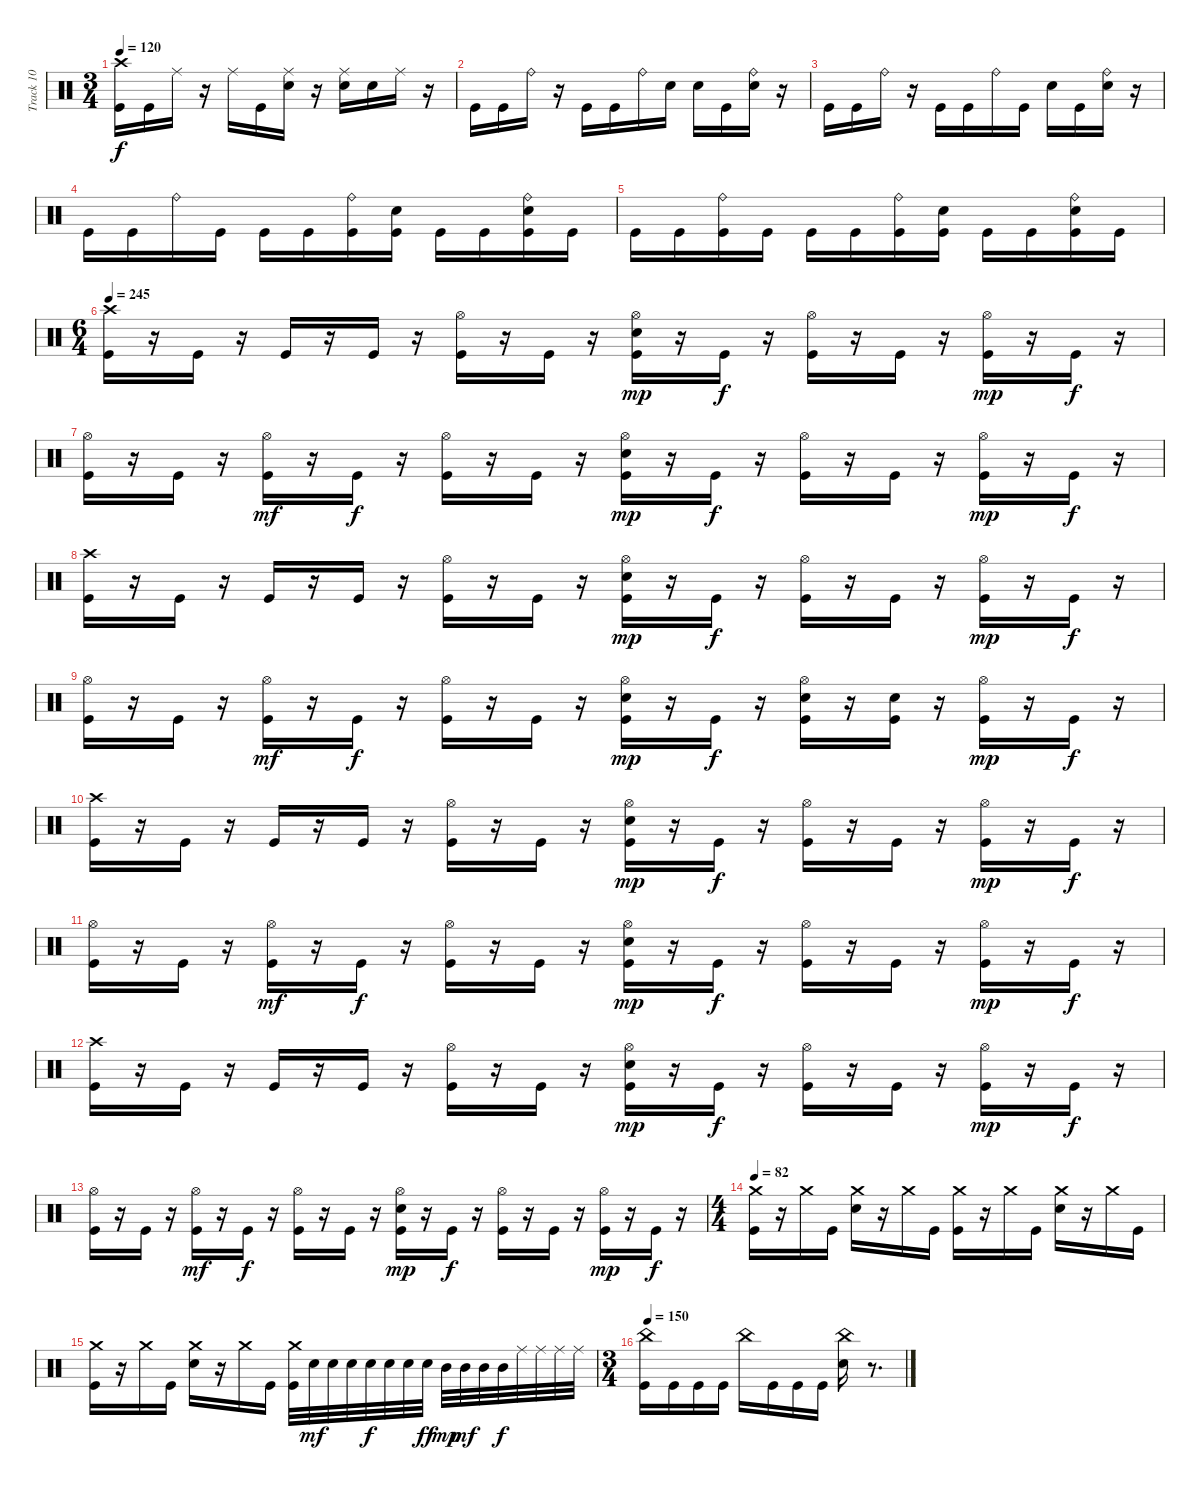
\track ("Track 10" "Track 10") {instrument percussion}
\staff {score}
\articulation defaults
\ts (3 4)
\tempo 120
\clef neutral
\ks c
("Kick (hit)" "Crash high (hit)").16{dy f} "Kick (hit)".16 "Ride (middle)".16 r.16 "Ride (middle)".16 "Kick (hit)".16 ("Snare (hit) 2" "Ride (middle)").16 r.16 ("Snare (hit) 2" "Ride (middle)").16 "Snare (hit) 2".16 "Ride (middle)".16 r.16 |
"Kick (hit)".16 "Kick (hit)".16 "Ride (bell)".16 r.16 "Kick (hit)".16 "Kick (hit)".16 "Ride (bell)".16 "Snare (hit) 2".16 "Snare (hit) 2".16 "Kick (hit)".16 ("Snare (hit) 2" "Ride (bell)").16 r.16 |
"Kick (hit)".16 "Kick (hit)".16 "Ride (bell)".16 r.16 "Kick (hit)".16 "Kick (hit)".16 "Ride (bell)".16 "Kick (hit)".16 "Snare (hit) 2".16 "Kick (hit)".16 ("Snare (hit) 2" "Ride (bell)").16 r.16 |
"Kick (hit)".16 "Kick (hit)".16 "Ride (bell)".16 "Kick (hit)".16 "Kick (hit)".16 "Kick (hit)".16 ("Kick (hit)" "Ride (bell)").16 ("Kick (hit)" "Snare (hit) 2").16 "Kick (hit)".16 "Kick (hit)".16 ("Kick (hit)" "Snare (hit) 2" "Ride (bell)").16 "Kick (hit)".16 |
"Kick (hit)".16 "Kick (hit)".16 ("Kick (hit)" "Ride (bell)").16 "Kick (hit)".16 "Kick (hit)".16 "Kick (hit)".16 ("Kick (hit)" "Ride (bell)").16 ("Kick (hit)" "Snare (hit) 2").16 "Kick (hit)".16 "Kick (hit)".16 ("Kick (hit)" "Snare (hit) 2" "Ride (bell)").16 "Kick (hit)".16 |
\ts (6 4)
\tempo 245
("Kick (hit)" "Crash high (hit)").16 r.16 "Kick (hit)".16 r.16 "Kick (hit)".16 r.16 "Kick (hit)".16 r.16 ("Kick (hit)" "Hi-Hat (open)").16 r.16 "Kick (hit)".16 r.16 ("Kick (hit)" "Snare (hit) 2" "Hi-Hat (open)").16{dy mp} r.16 "Kick (hit)".16{dy f} r.16 ("Kick (hit)" "Hi-Hat (open)").16 r.16 "Kick (hit)".16 r.16 ("Kick (hit)" "Hi-Hat (open)").16{dy mp} r.16 "Kick (hit)".16{dy f} r.16 |
("Kick (hit)" "Hi-Hat (open)").16 r.16 "Kick (hit)".16 r.16 ("Kick (hit)" "Hi-Hat (open)").16{dy mf} r.16 "Kick (hit)".16{dy f} r.16 ("Kick (hit)" "Hi-Hat (open)").16 r.16 "Kick (hit)".16 r.16 ("Kick (hit)" "Snare (hit) 2" "Hi-Hat (open)").16{dy mp} r.16 "Kick (hit)".16{dy f} r.16 ("Kick (hit)" "Hi-Hat (open)").16 r.16 "Kick (hit)".16 r.16 ("Kick (hit)" "Hi-Hat (open)").16{dy mp} r.16 "Kick (hit)".16{dy f} r.16 |
("Kick (hit)" "Crash high (hit)").16 r.16 "Kick (hit)".16 r.16 "Kick (hit)".16 r.16 "Kick (hit)".16 r.16 ("Kick (hit)" "Hi-Hat (open)").16 r.16 "Kick (hit)".16 r.16 ("Kick (hit)" "Snare (hit) 2" "Hi-Hat (open)").16{dy mp} r.16 "Kick (hit)".16{dy f} r.16 ("Kick (hit)" "Hi-Hat (open)").16 r.16 "Kick (hit)".16 r.16 ("Kick (hit)" "Hi-Hat (open)").16{dy mp} r.16 "Kick (hit)".16{dy f} r.16 |
("Kick (hit)" "Hi-Hat (open)").16 r.16 "Kick (hit)".16 r.16 ("Kick (hit)" "Hi-Hat (open)").16{dy mf} r.16 "Kick (hit)".16{dy f} r.16 ("Kick (hit)" "Hi-Hat (open)").16 r.16 "Kick (hit)".16 r.16 ("Kick (hit)" "Snare (hit) 2" "Hi-Hat (open)").16{dy mp} r.16 "Kick (hit)".16{dy f} r.16 ("Kick (hit)" "Snare (hit) 2" "Hi-Hat (open)").16 r.16 ("Kick (hit)" "Snare (hit) 2").16 r.16 ("Kick (hit)" "Hi-Hat (open)").16{dy mp} r.16 "Kick (hit)".16{dy f} r.16 |
("Kick (hit)" "Crash high (hit)").16 r.16 "Kick (hit)".16 r.16 "Kick (hit)".16 r.16 "Kick (hit)".16 r.16 ("Kick (hit)" "Hi-Hat (open)").16 r.16 "Kick (hit)".16 r.16 ("Kick (hit)" "Snare (hit) 2" "Hi-Hat (open)").16{dy mp} r.16 "Kick (hit)".16{dy f} r.16 ("Kick (hit)" "Hi-Hat (open)").16 r.16 "Kick (hit)".16 r.16 ("Kick (hit)" "Hi-Hat (open)").16{dy mp} r.16 "Kick (hit)".16{dy f} r.16 |
("Kick (hit)" "Hi-Hat (open)").16 r.16 "Kick (hit)".16 r.16 ("Kick (hit)" "Hi-Hat (open)").16{dy mf} r.16 "Kick (hit)".16{dy f} r.16 ("Kick (hit)" "Hi-Hat (open)").16 r.16 "Kick (hit)".16 r.16 ("Kick (hit)" "Snare (hit) 2" "Hi-Hat (open)").16{dy mp} r.16 "Kick (hit)".16{dy f} r.16 ("Kick (hit)" "Hi-Hat (open)").16 r.16 "Kick (hit)".16 r.16 ("Kick (hit)" "Hi-Hat (open)").16{dy mp} r.16 "Kick (hit)".16{dy f} r.16 |
("Kick (hit)" "Crash high (hit)").16 r.16 "Kick (hit)".16 r.16 "Kick (hit)".16 r.16 "Kick (hit)".16 r.16 ("Kick (hit)" "Hi-Hat (open)").16 r.16 "Kick (hit)".16 r.16 ("Kick (hit)" "Snare (hit) 2" "Hi-Hat (open)").16{dy mp} r.16 "Kick (hit)".16{dy f} r.16 ("Kick (hit)" "Hi-Hat (open)").16 r.16 "Kick (hit)".16 r.16 ("Kick (hit)" "Hi-Hat (open)").16{dy mp} r.16 "Kick (hit)".16{dy f} r.16 |
("Kick (hit)" "Hi-Hat (open)").16 r.16 "Kick (hit)".16 r.16 ("Kick (hit)" "Hi-Hat (open)").16{dy mf} r.16 "Kick (hit)".16{dy f} r.16 ("Kick (hit)" "Hi-Hat (open)").16 r.16 "Kick (hit)".16 r.16 ("Kick (hit)" "Snare (hit) 2" "Hi-Hat (open)").16{dy mp} r.16 "Kick (hit)".16{dy f} r.16 ("Kick (hit)" "Hi-Hat (open)").16 r.16 "Kick (hit)".16 r.16 ("Kick (hit)" "Hi-Hat (open)").16{dy mp} r.16 "Kick (hit)".16{dy f} r.16 |
\ts (4 4)
\tempo 82
("Kick (hit)" "Crash medium (hit)").16 r.16 "Crash medium (hit)".16 "Kick (hit)".16 ("Snare (hit) 2" "Crash medium (hit)").16 r.16 "Crash medium (hit)".16 "Kick (hit)".16 ("Kick (hit)" "Crash medium (hit)").16 r.16 "Crash medium (hit)".16 "Kick (hit)".16 ("Snare (hit) 2" "Crash medium (hit)").16 r.16 "Crash medium (hit)".16 "Kick (hit)".16 |
("Kick (hit)" "Crash medium (hit)").16 r.16 "Crash medium (hit)".16 "Kick (hit)".16 ("Snare (hit) 2" "Crash medium (hit)").16 r.16 "Crash medium (hit)".16 "Kick (hit)".16 ("Kick (hit)" "Crash medium (hit)").32 "Snare (hit) 2".32{dy mf} "Snare (hit) 2".32 "Snare (hit) 2".32 "Snare (hit) 2".32{dy f} "Snare (hit) 2".32 "Snare (hit) 2".32 "Snare (hit) 2".32{dy ff} "Mid Tom (hit)".32{dy mp} "Mid Tom (hit)".32{dy mf} "Mid Tom (hit)".32 "Mid Tom (hit)".32{dy f} "Ride (middle)".32 "Ride (middle)".32 "Ride (middle)".32 "Ride (middle)".32 |
\ts (3 4)
\tempo 150
("Kick (hit)" "China (hit)").16 "Kick (hit)".16 "Kick (hit)".16 "Kick (hit)".16 "China (hit)".16 "Kick (hit)".16 "Kick (hit)".16 "Kick (hit)".16 ("Snare (hit) 2" "China (hit)").16 r.8{d}
